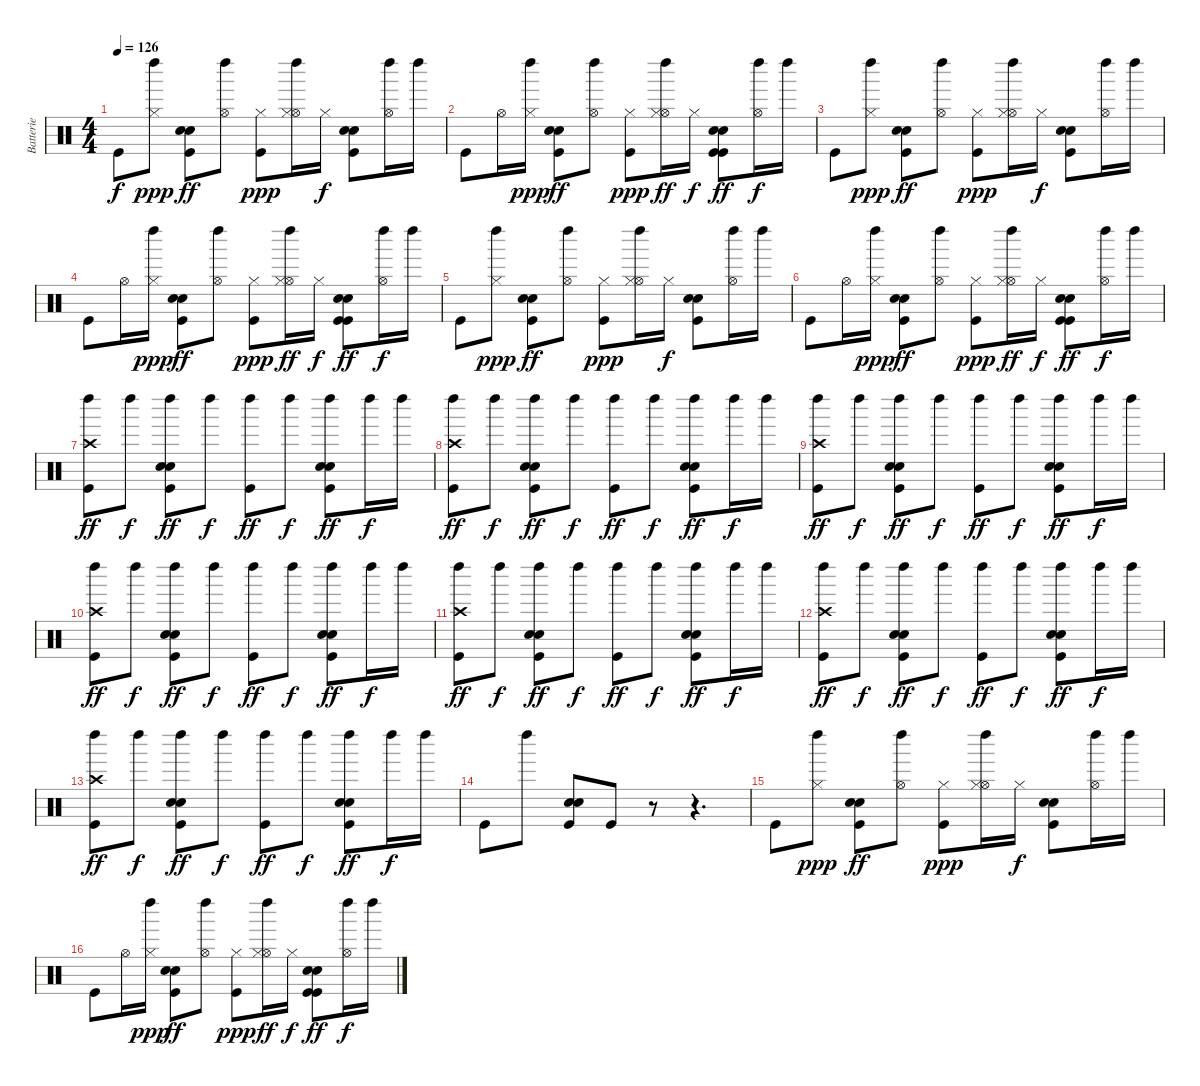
\track ("Batterie" "Batterie") {instrument percussion}
\staff {score}
\articulation defaults
\ts (4 4)
\tempo 126
\clef neutral
\ks c "Kick (hit)".8{dy f}
("Left Maraca (hit)" "Hi-Hat (closed)").8{dy ppp} ("Hand Clap (hit)" "Electric Snare (hit)" "Kick (hit)").8{dy ff} ("Left Maraca (hit)" "Hi-Hat (open)").8 ("Hi-Hat (closed)" "Kick (hit)").8{dy ppp} ("Left Maraca (hit)" "Hi-Hat (open)" "Hi-Hat (closed)").16 "Hi-Hat (closed)".16{dy f} ("Hand Clap (hit)" "Electric Snare (hit)" "Kick (hit)").8 ("Left Maraca (hit)" "Hi-Hat (open)").16 "Left Maraca (hit)".16 |
"Kick (hit)".8 "Hi-Hat (open)".16 ("Left Maraca (hit)" "Hi-Hat (closed)").16{dy ppp} ("Hand Clap (hit)" "Electric Snare (hit)" "Kick (hit)").8{dy ff} ("Left Maraca (hit)" "Hi-Hat (open)").8 ("Hi-Hat (closed)" "Kick (hit)").8{dy ppp} ("Left Maraca (hit)" "Hi-Hat (open)" "Hi-Hat (closed)").16{dy ff} "Hi-Hat (closed)".16{dy f} ("Kick (hit)" "Hand Clap (hit)" "Electric Snare (hit)" "Kick (hit)").8{dy ff} ("Left Maraca (hit)" "Hi-Hat (open)").16{dy f} "Left Maraca (hit)".16 |
"Kick (hit)".8 ("Left Maraca (hit)" "Hi-Hat (closed)").8{dy ppp} ("Hand Clap (hit)" "Electric Snare (hit)" "Kick (hit)").8{dy ff} ("Left Maraca (hit)" "Hi-Hat (open)").8 ("Hi-Hat (closed)" "Kick (hit)").8{dy ppp} ("Left Maraca (hit)" "Hi-Hat (open)" "Hi-Hat (closed)").16 "Hi-Hat (closed)".16{dy f} ("Hand Clap (hit)" "Electric Snare (hit)" "Kick (hit)").8 ("Left Maraca (hit)" "Hi-Hat (open)").16 "Left Maraca (hit)".16 |
"Kick (hit)".8 "Hi-Hat (open)".16 ("Left Maraca (hit)" "Hi-Hat (closed)").16{dy ppp} ("Hand Clap (hit)" "Electric Snare (hit)" "Kick (hit)").8{dy ff} ("Left Maraca (hit)" "Hi-Hat (open)").8 ("Hi-Hat (closed)" "Kick (hit)").8{dy ppp} ("Left Maraca (hit)" "Hi-Hat (open)" "Hi-Hat (closed)").16{dy ff} "Hi-Hat (closed)".16{dy f} ("Kick (hit)" "Hand Clap (hit)" "Electric Snare (hit)" "Kick (hit)").8{dy ff} ("Left Maraca (hit)" "Hi-Hat (open)").16{dy f} "Left Maraca (hit)".16 |
"Kick (hit)".8 ("Left Maraca (hit)" "Hi-Hat (closed)").8{dy ppp} ("Hand Clap (hit)" "Electric Snare (hit)" "Kick (hit)").8{dy ff} ("Left Maraca (hit)" "Hi-Hat (open)").8 ("Hi-Hat (closed)" "Kick (hit)").8{dy ppp} ("Left Maraca (hit)" "Hi-Hat (open)" "Hi-Hat (closed)").16 "Hi-Hat (closed)".16{dy f} ("Hand Clap (hit)" "Electric Snare (hit)" "Kick (hit)").8 ("Left Maraca (hit)" "Hi-Hat (open)").16 "Left Maraca (hit)".16 |
"Kick (hit)".8 "Hi-Hat (open)".16 ("Left Maraca (hit)" "Hi-Hat (closed)").16{dy ppp} ("Hand Clap (hit)" "Electric Snare (hit)" "Kick (hit)").8{dy ff} ("Left Maraca (hit)" "Hi-Hat (open)").8 ("Hi-Hat (closed)" "Kick (hit)").8{dy ppp} ("Left Maraca (hit)" "Hi-Hat (open)" "Hi-Hat (closed)").16{dy ff} "Hi-Hat (closed)".16{dy f} ("Kick (hit)" "Hand Clap (hit)" "Electric Snare (hit)" "Kick (hit)").8{dy ff} ("Left Maraca (hit)" "Hi-Hat (open)").16{dy f} "Left Maraca (hit)".16 |
("Left Maraca (hit)" "Crash high (hit)" "Kick (hit)").8{dy ff} "Left Maraca (hit)".8{dy f} ("Left Maraca (hit)" "Hand Clap (hit)" "Electric Snare (hit)" "Kick (hit)").8{dy ff} "Left Maraca (hit)".8{dy f} ("Left Maraca (hit)" "Kick (hit)").8{dy ff} "Left Maraca (hit)".8{dy f} ("Left Maraca (hit)" "Hand Clap (hit)" "Electric Snare (hit)" "Kick (hit)").8{dy ff} "Left Maraca (hit)".16{dy f} "Left Maraca (hit)".16 |
("Left Maraca (hit)" "Crash high (hit)" "Kick (hit)").8{dy ff} "Left Maraca (hit)".8{dy f} ("Left Maraca (hit)" "Hand Clap (hit)" "Electric Snare (hit)" "Kick (hit)").8{dy ff} "Left Maraca (hit)".8{dy f} ("Left Maraca (hit)" "Kick (hit)").8{dy ff} "Left Maraca (hit)".8{dy f} ("Left Maraca (hit)" "Hand Clap (hit)" "Electric Snare (hit)" "Kick (hit)").8{dy ff} "Left Maraca (hit)".16{dy f} "Left Maraca (hit)".16 |
("Left Maraca (hit)" "Crash high (hit)" "Kick (hit)").8{dy ff} "Left Maraca (hit)".8{dy f} ("Left Maraca (hit)" "Hand Clap (hit)" "Electric Snare (hit)" "Kick (hit)").8{dy ff} "Left Maraca (hit)".8{dy f} ("Left Maraca (hit)" "Kick (hit)").8{dy ff} "Left Maraca (hit)".8{dy f} ("Left Maraca (hit)" "Hand Clap (hit)" "Electric Snare (hit)" "Kick (hit)").8{dy ff} "Left Maraca (hit)".16{dy f} "Left Maraca (hit)".16 |
("Left Maraca (hit)" "Crash high (hit)" "Kick (hit)").8{dy ff} "Left Maraca (hit)".8{dy f} ("Left Maraca (hit)" "Hand Clap (hit)" "Electric Snare (hit)" "Kick (hit)").8{dy ff} "Left Maraca (hit)".8{dy f} ("Left Maraca (hit)" "Kick (hit)").8{dy ff} "Left Maraca (hit)".8{dy f} ("Left Maraca (hit)" "Hand Clap (hit)" "Electric Snare (hit)" "Kick (hit)").8{dy ff} "Left Maraca (hit)".16{dy f} "Left Maraca (hit)".16 |
("Left Maraca (hit)" "Crash high (hit)" "Kick (hit)").8{dy ff} "Left Maraca (hit)".8{dy f} ("Left Maraca (hit)" "Hand Clap (hit)" "Electric Snare (hit)" "Kick (hit)").8{dy ff} "Left Maraca (hit)".8{dy f} ("Left Maraca (hit)" "Kick (hit)").8{dy ff} "Left Maraca (hit)".8{dy f} ("Left Maraca (hit)" "Hand Clap (hit)" "Electric Snare (hit)" "Kick (hit)").8{dy ff} "Left Maraca (hit)".16{dy f} "Left Maraca (hit)".16 |
("Left Maraca (hit)" "Crash high (hit)" "Kick (hit)").8{dy ff} "Left Maraca (hit)".8{dy f} ("Left Maraca (hit)" "Hand Clap (hit)" "Electric Snare (hit)" "Kick (hit)").8{dy ff} "Left Maraca (hit)".8{dy f} ("Left Maraca (hit)" "Kick (hit)").8{dy ff} "Left Maraca (hit)".8{dy f} ("Left Maraca (hit)" "Hand Clap (hit)" "Electric Snare (hit)" "Kick (hit)").8{dy ff} "Left Maraca (hit)".16{dy f} "Left Maraca (hit)".16 |
("Left Maraca (hit)" "Crash high (hit)" "Kick (hit)").8{dy ff} "Left Maraca (hit)".8{dy f} ("Left Maraca (hit)" "Hand Clap (hit)" "Electric Snare (hit)" "Kick (hit)").8{dy ff} "Left Maraca (hit)".8{dy f} ("Left Maraca (hit)" "Kick (hit)").8{dy ff} "Left Maraca (hit)".8{dy f} ("Left Maraca (hit)" "Hand Clap (hit)" "Electric Snare (hit)" "Kick (hit)").8{dy ff} "Left Maraca (hit)".16{dy f} "Left Maraca (hit)".16 |
"Kick (hit)".8 "Left Maraca (hit)".8 ("Hand Clap (hit)" "Electric Snare (hit)" "Kick (hit)").8 "Kick (hit)".8 r.8 r.4{d} |
"Kick (hit)".8 ("Left Maraca (hit)" "Hi-Hat (closed)").8{dy ppp} ("Hand Clap (hit)" "Electric Snare (hit)" "Kick (hit)").8{dy ff} ("Left Maraca (hit)" "Hi-Hat (open)").8 ("Hi-Hat (closed)" "Kick (hit)").8{dy ppp} ("Left Maraca (hit)" "Hi-Hat (open)" "Hi-Hat (closed)").16 "Hi-Hat (closed)".16{dy f} ("Hand Clap (hit)" "Electric Snare (hit)" "Kick (hit)").8 ("Left Maraca (hit)" "Hi-Hat (open)").16 "Left Maraca (hit)".16 |
"Kick (hit)".8 "Hi-Hat (open)".16 ("Left Maraca (hit)" "Hi-Hat (closed)").16{dy ppp} ("Hand Clap (hit)" "Electric Snare (hit)" "Kick (hit)").8{dy ff} ("Left Maraca (hit)" "Hi-Hat (open)").8 ("Hi-Hat (closed)" "Kick (hit)").8{dy ppp} ("Left Maraca (hit)" "Hi-Hat (open)" "Hi-Hat (closed)").16{dy ff} "Hi-Hat (closed)".16{dy f} ("Kick (hit)" "Hand Clap (hit)" "Electric Snare (hit)" "Kick (hit)").8{dy ff} ("Left Maraca (hit)" "Hi-Hat (open)").16{dy f} "Left Maraca (hit)".16
